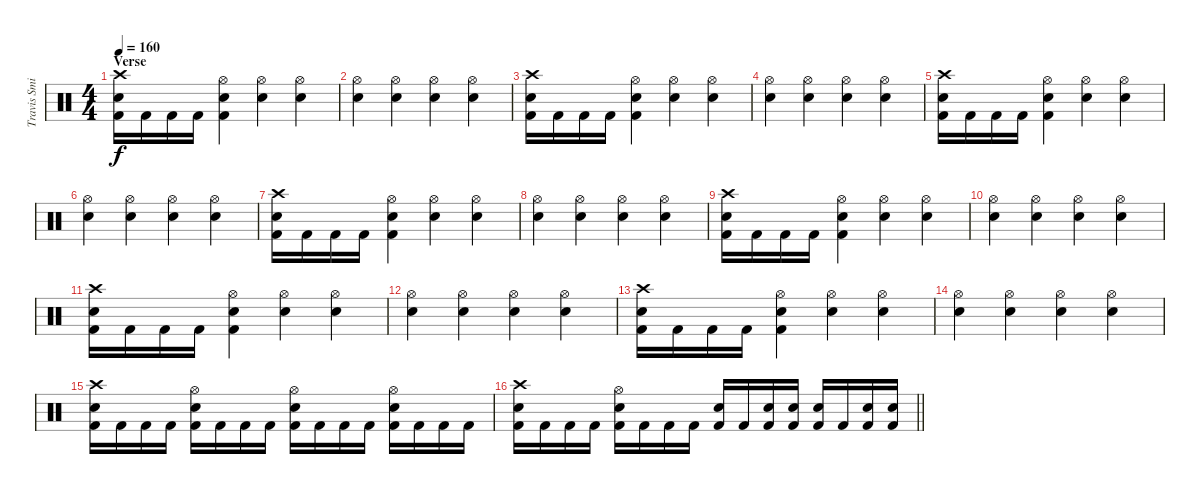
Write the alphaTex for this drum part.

\track ("Travis Smith" "Travis Smi") {instrument percussion}
\staff {score}
\articulation defaults
\ts (4 4)
\section ("" "Verse")
\tempo 160
\clef neutral
\ks c
("Crash high (hit)" "Electric Snare (hit)" "Kick (hit) 2").16{dy f} "Kick (hit) 2".16 "Kick (hit) 2".16 "Kick (hit) 2".16 ("Hi-Hat (open)" "Electric Snare (hit)" "Kick (hit) 2").4 ("Hi-Hat (open)" "Electric Snare (hit)").4 ("Hi-Hat (open)" "Electric Snare (hit)").4 |
("Hi-Hat (open)" "Electric Snare (hit)").4 ("Hi-Hat (open)" "Electric Snare (hit)").4 ("Hi-Hat (open)" "Electric Snare (hit)").4 ("Hi-Hat (open)" "Electric Snare (hit)").4 |
("Crash high (hit)" "Electric Snare (hit)" "Kick (hit) 2").16 "Kick (hit) 2".16 "Kick (hit) 2".16 "Kick (hit) 2".16 ("Hi-Hat (open)" "Electric Snare (hit)" "Kick (hit) 2").4 ("Hi-Hat (open)" "Electric Snare (hit)").4 ("Hi-Hat (open)" "Electric Snare (hit)").4 |
("Hi-Hat (open)" "Electric Snare (hit)").4 ("Hi-Hat (open)" "Electric Snare (hit)").4 ("Hi-Hat (open)" "Electric Snare (hit)").4 ("Hi-Hat (open)" "Electric Snare (hit)").4 |
("Crash high (hit)" "Electric Snare (hit)" "Kick (hit) 2").16 "Kick (hit) 2".16 "Kick (hit) 2".16 "Kick (hit) 2".16 ("Hi-Hat (open)" "Electric Snare (hit)" "Kick (hit) 2").4 ("Hi-Hat (open)" "Electric Snare (hit)").4 ("Hi-Hat (open)" "Electric Snare (hit)").4 |
("Hi-Hat (open)" "Electric Snare (hit)").4 ("Hi-Hat (open)" "Electric Snare (hit)").4 ("Hi-Hat (open)" "Electric Snare (hit)").4 ("Hi-Hat (open)" "Electric Snare (hit)").4 |
("Crash high (hit)" "Electric Snare (hit)" "Kick (hit) 2").16 "Kick (hit) 2".16 "Kick (hit) 2".16 "Kick (hit) 2".16 ("Hi-Hat (open)" "Electric Snare (hit)" "Kick (hit) 2").4 ("Hi-Hat (open)" "Electric Snare (hit)").4 ("Hi-Hat (open)" "Electric Snare (hit)").4 |
("Hi-Hat (open)" "Electric Snare (hit)").4 ("Hi-Hat (open)" "Electric Snare (hit)").4 ("Hi-Hat (open)" "Electric Snare (hit)").4 ("Hi-Hat (open)" "Electric Snare (hit)").4 |
("Crash high (hit)" "Electric Snare (hit)" "Kick (hit) 2").16 "Kick (hit) 2".16 "Kick (hit) 2".16 "Kick (hit) 2".16 ("Hi-Hat (open)" "Electric Snare (hit)" "Kick (hit) 2").4 ("Hi-Hat (open)" "Electric Snare (hit)").4 ("Hi-Hat (open)" "Electric Snare (hit)").4 |
("Hi-Hat (open)" "Electric Snare (hit)").4 ("Hi-Hat (open)" "Electric Snare (hit)").4 ("Hi-Hat (open)" "Electric Snare (hit)").4 ("Hi-Hat (open)" "Electric Snare (hit)").4 |
("Crash high (hit)" "Electric Snare (hit)" "Kick (hit) 2").16 "Kick (hit) 2".16 "Kick (hit) 2".16 "Kick (hit) 2".16 ("Hi-Hat (open)" "Electric Snare (hit)" "Kick (hit) 2").4 ("Hi-Hat (open)" "Electric Snare (hit)").4 ("Hi-Hat (open)" "Electric Snare (hit)").4 |
("Hi-Hat (open)" "Electric Snare (hit)").4 ("Hi-Hat (open)" "Electric Snare (hit)").4 ("Hi-Hat (open)" "Electric Snare (hit)").4 ("Hi-Hat (open)" "Electric Snare (hit)").4 |
("Crash high (hit)" "Electric Snare (hit)" "Kick (hit) 2").16 "Kick (hit) 2".16 "Kick (hit) 2".16 "Kick (hit) 2".16 ("Hi-Hat (open)" "Electric Snare (hit)" "Kick (hit) 2").4 ("Hi-Hat (open)" "Electric Snare (hit)").4 ("Hi-Hat (open)" "Electric Snare (hit)").4 |
("Hi-Hat (open)" "Electric Snare (hit)").4 ("Hi-Hat (open)" "Electric Snare (hit)").4 ("Hi-Hat (open)" "Electric Snare (hit)").4 ("Hi-Hat (open)" "Electric Snare (hit)").4 |
("Crash high (hit)" "Electric Snare (hit)" "Kick (hit) 2").16 "Kick (hit) 2".16 "Kick (hit) 2".16 "Kick (hit) 2".16 ("Hi-Hat (open)" "Electric Snare (hit)" "Kick (hit) 2").16 "Kick (hit) 2".16 "Kick (hit) 2".16 "Kick (hit) 2".16 ("Hi-Hat (open)" "Electric Snare (hit)" "Kick (hit) 2").16 "Kick (hit) 2".16 "Kick (hit) 2".16 "Kick (hit) 2".16 ("Hi-Hat (open)" "Electric Snare (hit)" "Kick (hit) 2").16 "Kick (hit) 2".16 "Kick (hit) 2".16 "Kick (hit) 2".16 |
\barLineRight lightlight
("Crash high (hit)" "Electric Snare (hit)" "Kick (hit) 2").16 "Kick (hit) 2".16 "Kick (hit) 2".16 "Kick (hit) 2".16 ("Hi-Hat (open)" "Electric Snare (hit)" "Kick (hit) 2").16 "Kick (hit) 2".16 "Kick (hit) 2".16 "Kick (hit) 2".16 ("Electric Snare (hit)" "Kick (hit) 2").16 "Kick (hit) 2".16 ("Electric Snare (hit)" "Kick (hit) 2").16 ("Electric Snare (hit)" "Kick (hit) 2").16 ("Electric Snare (hit)" "Kick (hit) 2").16 "Kick (hit) 2".16 ("Electric Snare (hit)" "Kick (hit) 2").16 ("Electric Snare (hit)" "Kick (hit) 2").16
